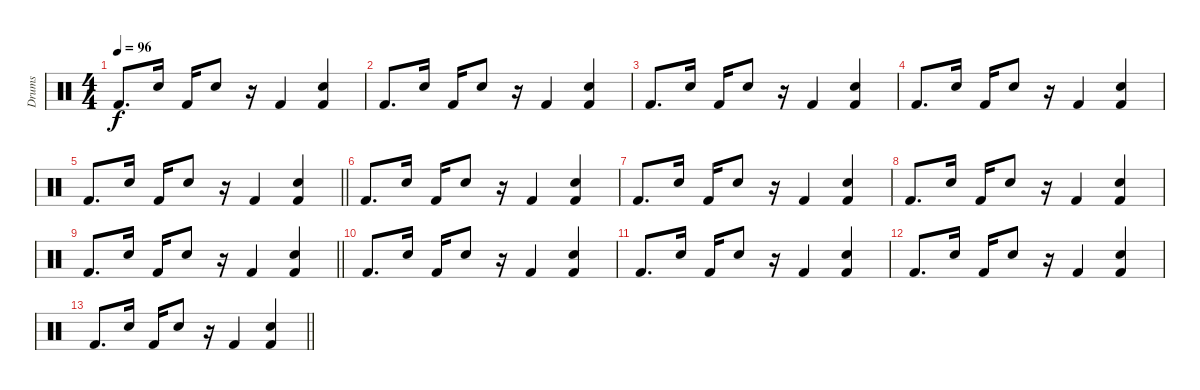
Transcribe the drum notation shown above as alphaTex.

\track ("Drums" "Drums") {instrument percussion}
\staff {score}
\articulation defaults
\ts (4 4)
\tempo 96
\clef neutral
\ks c "Kick (hit) 2".8{d dy f} "Snare (hit) 2".16 "Kick (hit) 2".16 "Snare (hit) 2".8
r.16 "Kick (hit) 2".4 ("Snare (hit) 2" "Kick (hit) 2").4 |
"Kick (hit) 2".8{d} "Snare (hit) 2".16 "Kick (hit) 2".16 "Snare (hit) 2".8 r.16 "Kick (hit) 2".4 ("Snare (hit) 2" "Kick (hit) 2").4 |
"Kick (hit) 2".8{d} "Snare (hit) 2".16 "Kick (hit) 2".16 "Snare (hit) 2".8 r.16 "Kick (hit) 2".4 ("Snare (hit) 2" "Kick (hit) 2").4 |
"Kick (hit) 2".8{d} "Snare (hit) 2".16 "Kick (hit) 2".16 "Snare (hit) 2".8 r.16 "Kick (hit) 2".4 ("Snare (hit) 2" "Kick (hit) 2").4 |
\barLineRight lightlight "Kick (hit) 2".8{d} "Snare (hit) 2".16 "Kick (hit) 2".16 "Snare (hit) 2".8
r.16 "Kick (hit) 2".4 ("Snare (hit) 2" "Kick (hit) 2").4 |
"Kick (hit) 2".8{d} "Snare (hit) 2".16 "Kick (hit) 2".16 "Snare (hit) 2".8 r.16 "Kick (hit) 2".4 ("Snare (hit) 2" "Kick (hit) 2").4 |
"Kick (hit) 2".8{d} "Snare (hit) 2".16 "Kick (hit) 2".16 "Snare (hit) 2".8 r.16 "Kick (hit) 2".4 ("Snare (hit) 2" "Kick (hit) 2").4 |
"Kick (hit) 2".8{d} "Snare (hit) 2".16 "Kick (hit) 2".16 "Snare (hit) 2".8 r.16 "Kick (hit) 2".4 ("Snare (hit) 2" "Kick (hit) 2").4 |
\barLineRight lightlight "Kick (hit) 2".8{d} "Snare (hit) 2".16 "Kick (hit) 2".16 "Snare (hit) 2".8
r.16 "Kick (hit) 2".4 ("Snare (hit) 2" "Kick (hit) 2").4 |
"Kick (hit) 2".8{d} "Snare (hit) 2".16 "Kick (hit) 2".16 "Snare (hit) 2".8 r.16 "Kick (hit) 2".4 ("Snare (hit) 2" "Kick (hit) 2").4 |
"Kick (hit) 2".8{d} "Snare (hit) 2".16 "Kick (hit) 2".16 "Snare (hit) 2".8 r.16 "Kick (hit) 2".4 ("Snare (hit) 2" "Kick (hit) 2").4 |
"Kick (hit) 2".8{d} "Snare (hit) 2".16 "Kick (hit) 2".16 "Snare (hit) 2".8 r.16 "Kick (hit) 2".4 ("Snare (hit) 2" "Kick (hit) 2").4 |
\barLineRight lightlight "Kick (hit) 2".8{d} "Snare (hit) 2".16 "Kick (hit) 2".16 "Snare (hit) 2".8
r.16 "Kick (hit) 2".4 ("Snare (hit) 2" "Kick (hit) 2").4
